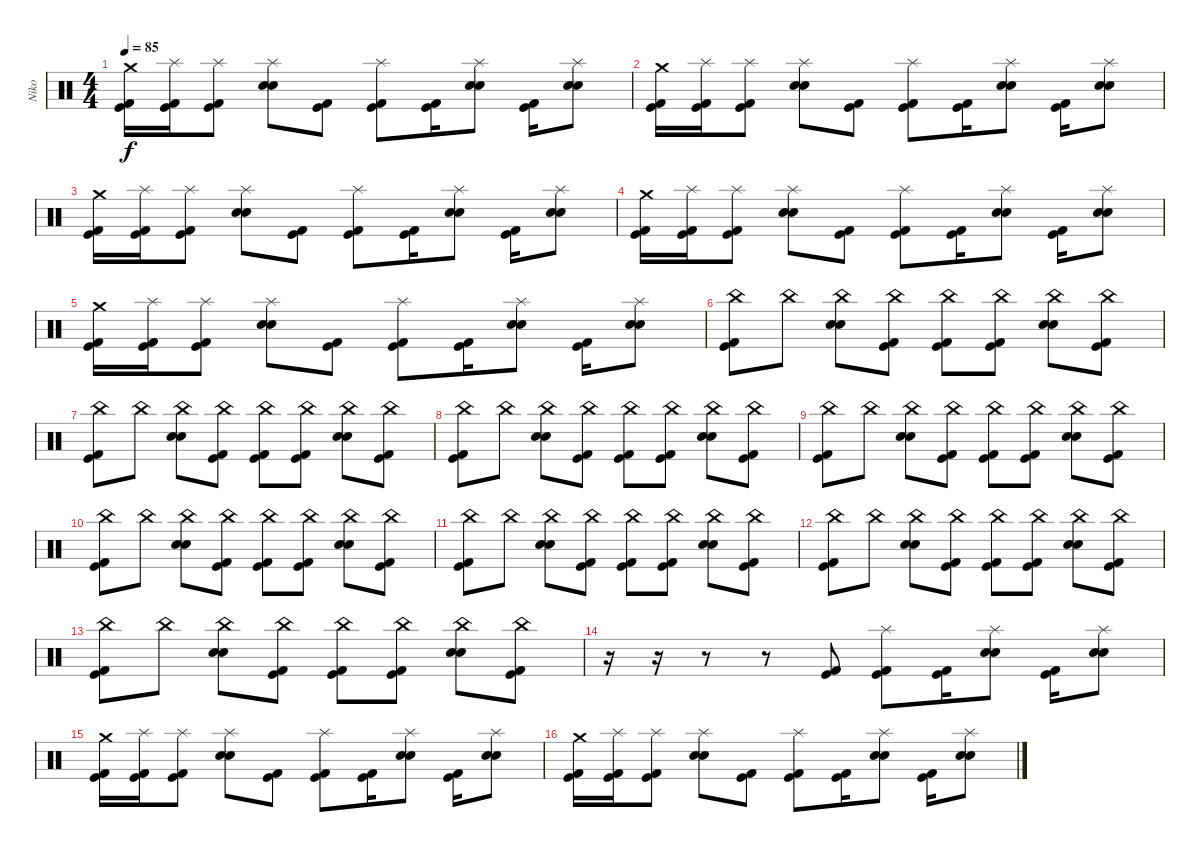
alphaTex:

\track ("Niko" "Niko") {instrument percussion}
\staff {score}
\articulation defaults
\ts (4 4)
\tempo 85
\clef neutral
\ks c
("Crash medium (hit)" "Kick (hit) 2" "Kick (hit)").16{dy f} ("Splash (hit)" "Kick (hit)" "Kick (hit) 2").16 ("Splash (hit)" "Kick (hit) 2" "Kick (hit)").8 ("Splash (hit)" "Electric Snare (hit)" "Electric Snare (hit)").8 ("Kick (hit) 2" "Kick (hit)").8 ("Splash (hit)" "Kick (hit)" "Kick (hit) 2").8 ("Kick (hit) 2" "Kick (hit)").16 ("Splash (hit)" "Electric Snare (hit)" "Electric Snare (hit)").8 ("Kick (hit) 2" "Kick (hit)").16 ("Splash (hit)" "Electric Snare (hit)" "Electric Snare (hit)").8 |
("Crash medium (hit)" "Kick (hit) 2" "Kick (hit)").16 ("Splash (hit)" "Kick (hit)" "Kick (hit) 2").16 ("Splash (hit)" "Kick (hit) 2" "Kick (hit)").8 ("Splash (hit)" "Electric Snare (hit)" "Electric Snare (hit)").8 ("Kick (hit) 2" "Kick (hit)").8 ("Splash (hit)" "Kick (hit)" "Kick (hit) 2").8 ("Kick (hit) 2" "Kick (hit)").16 ("Splash (hit)" "Electric Snare (hit)" "Electric Snare (hit)").8 ("Kick (hit) 2" "Kick (hit)").16 ("Splash (hit)" "Electric Snare (hit)" "Electric Snare (hit)").8 |
("Crash medium (hit)" "Kick (hit) 2" "Kick (hit)").16 ("Splash (hit)" "Kick (hit)" "Kick (hit) 2").16 ("Splash (hit)" "Kick (hit) 2" "Kick (hit)").8 ("Splash (hit)" "Electric Snare (hit)" "Electric Snare (hit)").8 ("Kick (hit) 2" "Kick (hit)").8 ("Splash (hit)" "Kick (hit)" "Kick (hit) 2").8 ("Kick (hit) 2" "Kick (hit)").16 ("Splash (hit)" "Electric Snare (hit)" "Electric Snare (hit)").8 ("Kick (hit) 2" "Kick (hit)").16 ("Splash (hit)" "Electric Snare (hit)" "Electric Snare (hit)").8 |
("Crash medium (hit)" "Kick (hit) 2" "Kick (hit)").16 ("Splash (hit)" "Kick (hit)" "Kick (hit) 2").16 ("Splash (hit)" "Kick (hit) 2" "Kick (hit)").8 ("Splash (hit)" "Electric Snare (hit)" "Electric Snare (hit)").8 ("Kick (hit) 2" "Kick (hit)").8 ("Splash (hit)" "Kick (hit)" "Kick (hit) 2").8 ("Kick (hit) 2" "Kick (hit)").16 ("Splash (hit)" "Electric Snare (hit)" "Electric Snare (hit)").8 ("Kick (hit) 2" "Kick (hit)").16 ("Splash (hit)" "Electric Snare (hit)" "Electric Snare (hit)").8 |
("Crash medium (hit)" "Kick (hit) 2" "Kick (hit)").16 ("Splash (hit)" "Kick (hit)" "Kick (hit) 2").16 ("Splash (hit)" "Kick (hit) 2" "Kick (hit)").8 ("Splash (hit)" "Electric Snare (hit)" "Electric Snare (hit)").8 ("Kick (hit) 2" "Kick (hit)").8 ("Splash (hit)" "Kick (hit)" "Kick (hit) 2").8 ("Kick (hit) 2" "Kick (hit)").16 ("Splash (hit)" "Electric Snare (hit)" "Electric Snare (hit)").8 ("Kick (hit) 2" "Kick (hit)").16 ("Splash (hit)" "Electric Snare (hit)" "Electric Snare (hit)").8 |
("China (hit)" "Kick (hit) 2" "Kick (hit)").8 "China (hit)".8 ("China (hit)" "Electric Snare (hit)" "Electric Snare (hit)").8 ("China (hit)" "Kick (hit) 2" "Kick (hit)").8 ("China (hit)" "Kick (hit) 2" "Kick (hit)").8 ("China (hit)" "Kick (hit)" "Kick (hit) 2").8 ("China (hit)" "Electric Snare (hit)" "Electric Snare (hit)").8 ("China (hit)" "Kick (hit)" "Kick (hit) 2").8 |
("China (hit)" "Kick (hit) 2" "Kick (hit)").8 "China (hit)".8 ("China (hit)" "Electric Snare (hit)" "Electric Snare (hit)").8 ("China (hit)" "Kick (hit) 2" "Kick (hit)").8 ("China (hit)" "Kick (hit) 2" "Kick (hit)").8 ("China (hit)" "Kick (hit)" "Kick (hit) 2").8 ("China (hit)" "Electric Snare (hit)" "Electric Snare (hit)").8 ("China (hit)" "Kick (hit)" "Kick (hit) 2").8 |
("China (hit)" "Kick (hit) 2" "Kick (hit)").8 "China (hit)".8 ("China (hit)" "Electric Snare (hit)" "Electric Snare (hit)").8 ("China (hit)" "Kick (hit) 2" "Kick (hit)").8 ("China (hit)" "Kick (hit) 2" "Kick (hit)").8 ("China (hit)" "Kick (hit)" "Kick (hit) 2").8 ("China (hit)" "Electric Snare (hit)" "Electric Snare (hit)").8 ("China (hit)" "Kick (hit)" "Kick (hit) 2").8 |
("China (hit)" "Kick (hit) 2" "Kick (hit)").8 "China (hit)".8 ("China (hit)" "Electric Snare (hit)" "Electric Snare (hit)").8 ("China (hit)" "Kick (hit) 2" "Kick (hit)").8 ("China (hit)" "Kick (hit) 2" "Kick (hit)").8 ("China (hit)" "Kick (hit)" "Kick (hit) 2").8 ("China (hit)" "Electric Snare (hit)" "Electric Snare (hit)").8 ("China (hit)" "Kick (hit)" "Kick (hit) 2").8 |
("China (hit)" "Kick (hit) 2" "Kick (hit)").8 "China (hit)".8 ("China (hit)" "Electric Snare (hit)" "Electric Snare (hit)").8 ("China (hit)" "Kick (hit) 2" "Kick (hit)").8 ("China (hit)" "Kick (hit) 2" "Kick (hit)").8 ("China (hit)" "Kick (hit)" "Kick (hit) 2").8 ("China (hit)" "Electric Snare (hit)" "Electric Snare (hit)").8 ("China (hit)" "Kick (hit)" "Kick (hit) 2").8 |
("China (hit)" "Kick (hit) 2" "Kick (hit)").8 "China (hit)".8 ("China (hit)" "Electric Snare (hit)" "Electric Snare (hit)").8 ("China (hit)" "Kick (hit) 2" "Kick (hit)").8 ("China (hit)" "Kick (hit) 2" "Kick (hit)").8 ("China (hit)" "Kick (hit)" "Kick (hit) 2").8 ("China (hit)" "Electric Snare (hit)" "Electric Snare (hit)").8 ("China (hit)" "Kick (hit)" "Kick (hit) 2").8 |
("China (hit)" "Kick (hit) 2" "Kick (hit)").8 "China (hit)".8 ("China (hit)" "Electric Snare (hit)" "Electric Snare (hit)").8 ("China (hit)" "Kick (hit) 2" "Kick (hit)").8 ("China (hit)" "Kick (hit) 2" "Kick (hit)").8 ("China (hit)" "Kick (hit)" "Kick (hit) 2").8 ("China (hit)" "Electric Snare (hit)" "Electric Snare (hit)").8 ("China (hit)" "Kick (hit)" "Kick (hit) 2").8 |
("China (hit)" "Kick (hit) 2" "Kick (hit)").8 "China (hit)".8 ("China (hit)" "Electric Snare (hit)" "Electric Snare (hit)").8 ("China (hit)" "Kick (hit) 2" "Kick (hit)").8 ("China (hit)" "Kick (hit) 2" "Kick (hit)").8 ("China (hit)" "Kick (hit)" "Kick (hit) 2").8 ("China (hit)" "Electric Snare (hit)" "Electric Snare (hit)").8 ("China (hit)" "Kick (hit)" "Kick (hit) 2").8 |
r.16 r.16 r.8 r.8 ("Kick (hit) 2" "Kick (hit)").8 ("Splash (hit)" "Kick (hit)" "Kick (hit) 2").8 ("Kick (hit) 2" "Kick (hit)").16 ("Splash (hit)" "Electric Snare (hit)" "Electric Snare (hit)").8 ("Kick (hit) 2" "Kick (hit)").16 ("Splash (hit)" "Electric Snare (hit)" "Electric Snare (hit)").8 |
("Crash medium (hit)" "Kick (hit) 2" "Kick (hit)").16 ("Splash (hit)" "Kick (hit)" "Kick (hit) 2").16 ("Splash (hit)" "Kick (hit) 2" "Kick (hit)").8 ("Splash (hit)" "Electric Snare (hit)" "Electric Snare (hit)").8 ("Kick (hit) 2" "Kick (hit)").8 ("Splash (hit)" "Kick (hit)" "Kick (hit) 2").8 ("Kick (hit) 2" "Kick (hit)").16 ("Splash (hit)" "Electric Snare (hit)" "Electric Snare (hit)").8 ("Kick (hit) 2" "Kick (hit)").16 ("Splash (hit)" "Electric Snare (hit)" "Electric Snare (hit)").8 |
("Crash medium (hit)" "Kick (hit) 2" "Kick (hit)").16 ("Splash (hit)" "Kick (hit)" "Kick (hit) 2").16 ("Splash (hit)" "Kick (hit) 2" "Kick (hit)").8 ("Splash (hit)" "Electric Snare (hit)" "Electric Snare (hit)").8 ("Kick (hit) 2" "Kick (hit)").8 ("Splash (hit)" "Kick (hit)" "Kick (hit) 2").8 ("Kick (hit) 2" "Kick (hit)").16 ("Splash (hit)" "Electric Snare (hit)" "Electric Snare (hit)").8 ("Kick (hit) 2" "Kick (hit)").16 ("Splash (hit)" "Electric Snare (hit)" "Electric Snare (hit)").8
